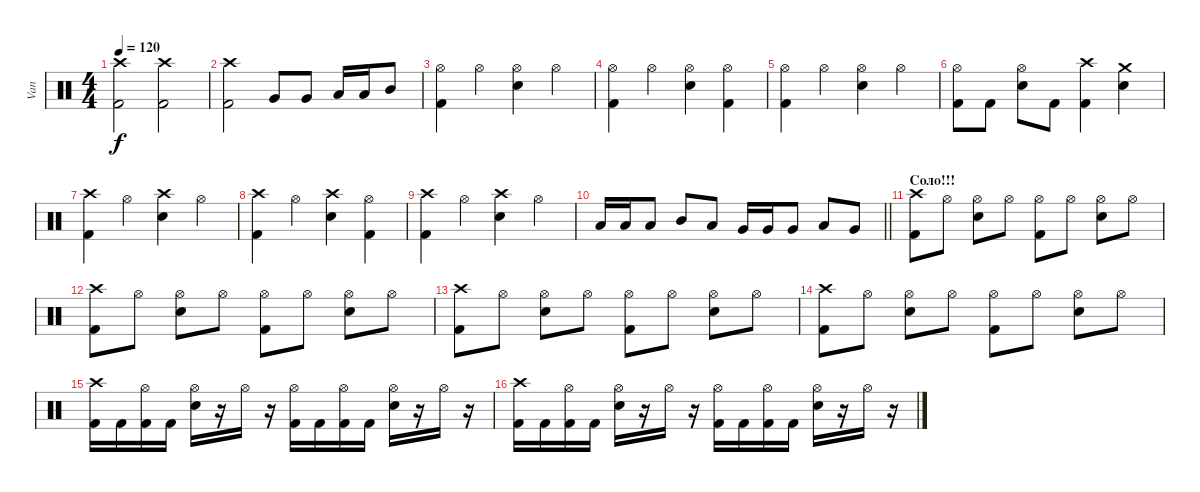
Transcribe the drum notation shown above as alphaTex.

\track ("Van" "Van") {instrument percussion}
\staff {score}
\articulation defaults
\ts (4 4)
\tempo 120
\clef neutral
\ks c
("Crash high (hit)" "Kick (hit) 2").2{dy f} ("Crash high (hit)" "Kick (hit) 2").2 |
("Crash high (hit)" "Kick (hit) 2").2 "Very Low Tom (hit)".8 "Very Low Tom (hit)".8 "Low Tom (hit)".16 "Low Tom (hit)".16 "Mid Tom (hit)".8 |
("Hi-Hat (open)" "Kick (hit) 2").4 "Hi-Hat (open)".4 ("Hi-Hat (open)" "Electric Snare (hit)").4 "Hi-Hat (open)".4 |
("Hi-Hat (open)" "Kick (hit) 2").4 "Hi-Hat (open)".4 ("Hi-Hat (open)" "Electric Snare (hit)").4 ("Hi-Hat (open)" "Kick (hit) 2").4 |
("Hi-Hat (open)" "Kick (hit) 2").4 "Hi-Hat (open)".4 ("Hi-Hat (open)" "Electric Snare (hit)").4 "Hi-Hat (open)".4 |
("Hi-Hat (open)" "Kick (hit) 2").8 "Kick (hit) 2".8 ("Hi-Hat (open)" "Electric Snare (hit)").8 "Kick (hit) 2".8 ("Crash high (hit)" "Kick (hit) 2").4 ("Crash medium (hit)" "Electric Snare (hit)").4 |
("Crash high (hit)" "Kick (hit) 2").4 "Hi-Hat (open)".4 ("Crash high (hit)" "Electric Snare (hit)").4 "Hi-Hat (open)".4 |
("Crash high (hit)" "Kick (hit) 2").4 "Hi-Hat (open)".4 ("Crash high (hit)" "Electric Snare (hit)").4 ("Hi-Hat (open)" "Kick (hit) 2").4 |
("Crash high (hit)" "Kick (hit) 2").4 "Hi-Hat (open)".4 ("Crash high (hit)" "Electric Snare (hit)").4 "Hi-Hat (open)".4 |
\barLineRight lightlight "Low Tom (hit)".16 "Low Tom (hit)".16 "Low Tom (hit)".8 "Mid Tom (hit)".8 "Low Tom (hit)".8 "Very Low Tom (hit)".16 "Very Low Tom (hit)".16 "Very Low Tom (hit)".8 "Low Tom (hit)".8 "Very Low Tom (hit)".8
|
\section ("" "Соло!!!")
("Crash high (hit)" "Kick (hit) 2").8 "Hi-Hat (open)".8 ("Hi-Hat (open)" "Electric Snare (hit)").8 "Hi-Hat (open)".8 ("Hi-Hat (open)" "Kick (hit) 2").8 "Hi-Hat (open)".8 ("Hi-Hat (open)" "Electric Snare (hit)").8 "Hi-Hat (open)".8 |
("Crash high (hit)" "Kick (hit) 2").8 "Hi-Hat (open)".8 ("Hi-Hat (open)" "Electric Snare (hit)").8 "Hi-Hat (open)".8 ("Hi-Hat (open)" "Kick (hit) 2").8 "Hi-Hat (open)".8 ("Hi-Hat (open)" "Electric Snare (hit)").8 "Hi-Hat (open)".8 |
("Crash high (hit)" "Kick (hit) 2").8 "Hi-Hat (open)".8 ("Hi-Hat (open)" "Electric Snare (hit)").8 "Hi-Hat (open)".8 ("Hi-Hat (open)" "Kick (hit) 2").8 "Hi-Hat (open)".8 ("Hi-Hat (open)" "Electric Snare (hit)").8 "Hi-Hat (open)".8 |
("Crash high (hit)" "Kick (hit) 2").8 "Hi-Hat (open)".8 ("Hi-Hat (open)" "Electric Snare (hit)").8 "Hi-Hat (open)".8 ("Hi-Hat (open)" "Kick (hit) 2").8 "Hi-Hat (open)".8 ("Hi-Hat (open)" "Electric Snare (hit)").8 "Hi-Hat (open)".8 |
("Crash high (hit)" "Kick (hit) 2").16 "Kick (hit) 2".16 ("Hi-Hat (open)" "Kick (hit) 2").16 "Kick (hit) 2".16 ("Hi-Hat (open)" "Electric Snare (hit)").16 r.16 "Hi-Hat (open)".16 r.16 ("Hi-Hat (open)" "Kick (hit) 2").16 "Kick (hit) 2".16 ("Hi-Hat (open)" "Kick (hit) 2").16 "Kick (hit) 2".16 ("Hi-Hat (open)" "Electric Snare (hit)").16 r.16 "Hi-Hat (open)".16 r.16 |
("Crash high (hit)" "Kick (hit) 2").16 "Kick (hit) 2".16 ("Hi-Hat (open)" "Kick (hit) 2").16 "Kick (hit) 2".16 ("Hi-Hat (open)" "Electric Snare (hit)").16 r.16 "Hi-Hat (open)".16 r.16 ("Hi-Hat (open)" "Kick (hit) 2").16 "Kick (hit) 2".16 ("Hi-Hat (open)" "Kick (hit) 2").16 "Kick (hit) 2".16 ("Hi-Hat (open)" "Electric Snare (hit)").16 r.16 "Hi-Hat (open)".16 r.16
